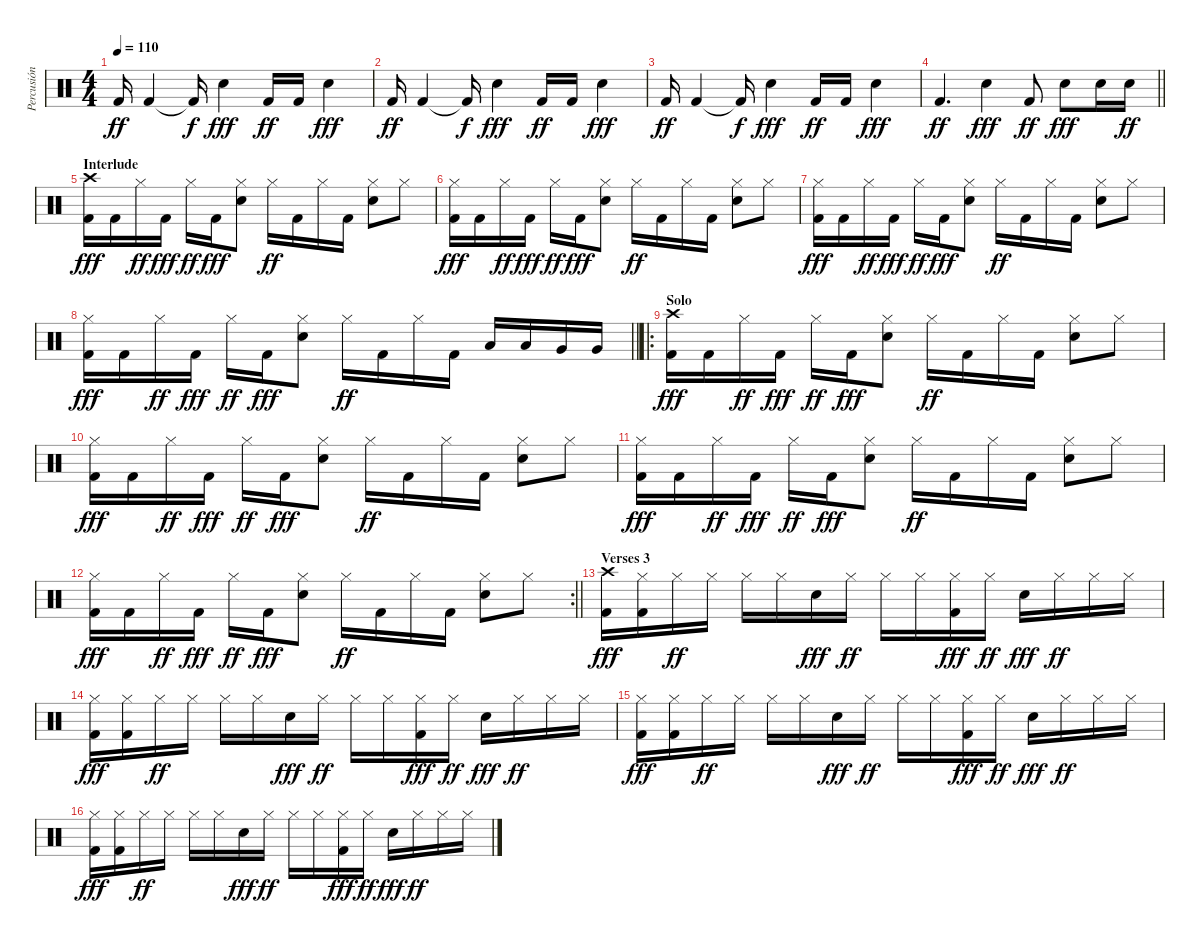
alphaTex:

\track ("Percusión" "Percusión") {instrument percussion}
\staff {score}
\articulation defaults
\ts (4 4)
\tempo 110
\clef neutral
\ks c "Kick (hit) 2".16{dy ff} "Kick (hit) 2".4 "Kick (hit) 2"{t}.16{dy f} "Electric Snare (hit)".4{dy fff} "Kick (hit) 2".16{dy ff} "Kick (hit) 2".16 "Electric Snare (hit)".4{dy fff}
|
"Kick (hit) 2".16{dy ff} "Kick (hit) 2".4 "Kick (hit) 2"{t}.16{dy f} "Electric Snare (hit)".4{dy fff} "Kick (hit) 2".16{dy ff} "Kick (hit) 2".16 "Electric Snare (hit)".4{dy fff} |
"Kick (hit) 2".16{dy ff} "Kick (hit) 2".4 "Kick (hit) 2"{t}.16{dy f} "Electric Snare (hit)".4{dy fff} "Kick (hit) 2".16{dy ff} "Kick (hit) 2".16 "Electric Snare (hit)".4{dy fff} |
\barLineRight lightlight "Kick (hit) 2".4{d dy ff} "Electric Snare (hit)".4{dy fff} "Kick (hit) 2".8{dy ff} "Electric Snare (hit)".8{dy fff} "Electric Snare (hit)".16 "Electric Snare (hit)".16{dy ff}
|
\section ("" "Interlude")
("Crash high (hit)" "Kick (hit) 2").16{dy fff} "Kick (hit) 2".16 "Hi-Hat (closed)".16{dy ff} "Kick (hit) 2".16{dy fff} "Hi-Hat (closed)".16{dy ff} "Kick (hit) 2".16{dy fff} ("Hi-Hat (closed)" "Electric Snare (hit)").8 "Hi-Hat (closed)".16{dy ff} "Kick (hit) 2".16 "Hi-Hat (closed)".16 "Kick (hit) 2".16 ("Hi-Hat (closed)" "Electric Snare (hit)").8 "Hi-Hat (closed)".8 |
("Hi-Hat (closed)" "Kick (hit) 2").16{dy fff} "Kick (hit) 2".16 "Hi-Hat (closed)".16{dy ff} "Kick (hit) 2".16{dy fff} "Hi-Hat (closed)".16{dy ff} "Kick (hit) 2".16{dy fff} ("Hi-Hat (closed)" "Electric Snare (hit)").8 "Hi-Hat (closed)".16{dy ff} "Kick (hit) 2".16 "Hi-Hat (closed)".16 "Kick (hit) 2".16 ("Hi-Hat (closed)" "Electric Snare (hit)").8 "Hi-Hat (closed)".8 |
("Hi-Hat (closed)" "Kick (hit) 2").16{dy fff} "Kick (hit) 2".16 "Hi-Hat (closed)".16{dy ff} "Kick (hit) 2".16{dy fff} "Hi-Hat (closed)".16{dy ff} "Kick (hit) 2".16{dy fff} ("Hi-Hat (closed)" "Electric Snare (hit)").8 "Hi-Hat (closed)".16{dy ff} "Kick (hit) 2".16 "Hi-Hat (closed)".16 "Kick (hit) 2".16 ("Hi-Hat (closed)" "Electric Snare (hit)").8 "Hi-Hat (closed)".8 |
\barLineRight lightlight
("Hi-Hat (closed)" "Kick (hit) 2").16{dy fff} "Kick (hit) 2".16 "Hi-Hat (closed)".16{dy ff} "Kick (hit) 2".16{dy fff} "Hi-Hat (closed)".16{dy ff} "Kick (hit) 2".16{dy fff} ("Hi-Hat (closed)" "Electric Snare (hit)").8 "Hi-Hat (closed)".16{dy ff} "Kick (hit) 2".16 "Hi-Hat (closed)".16 "Kick (hit) 2".16 "Low Tom (hit)".16 "Low Tom (hit)".16 "Very Low Tom (hit)".16 "Very Low Tom (hit)".16 |
\ro
\section ("" "Solo")
("Crash high (hit)" "Kick (hit) 2").16{dy fff} "Kick (hit) 2".16 "Hi-Hat (closed)".16{dy ff} "Kick (hit) 2".16{dy fff} "Hi-Hat (closed)".16{dy ff} "Kick (hit) 2".16{dy fff} ("Hi-Hat (closed)" "Electric Snare (hit)").8 "Hi-Hat (closed)".16{dy ff} "Kick (hit) 2".16 "Hi-Hat (closed)".16 "Kick (hit) 2".16 ("Hi-Hat (closed)" "Electric Snare (hit)").8 "Hi-Hat (closed)".8 |
("Hi-Hat (closed)" "Kick (hit) 2").16{dy fff} "Kick (hit) 2".16 "Hi-Hat (closed)".16{dy ff} "Kick (hit) 2".16{dy fff} "Hi-Hat (closed)".16{dy ff} "Kick (hit) 2".16{dy fff} ("Hi-Hat (closed)" "Electric Snare (hit)").8 "Hi-Hat (closed)".16{dy ff} "Kick (hit) 2".16 "Hi-Hat (closed)".16 "Kick (hit) 2".16 ("Hi-Hat (closed)" "Electric Snare (hit)").8 "Hi-Hat (closed)".8 |
("Hi-Hat (closed)" "Kick (hit) 2").16{dy fff} "Kick (hit) 2".16 "Hi-Hat (closed)".16{dy ff} "Kick (hit) 2".16{dy fff} "Hi-Hat (closed)".16{dy ff} "Kick (hit) 2".16{dy fff} ("Hi-Hat (closed)" "Electric Snare (hit)").8 "Hi-Hat (closed)".16{dy ff} "Kick (hit) 2".16 "Hi-Hat (closed)".16 "Kick (hit) 2".16 ("Hi-Hat (closed)" "Electric Snare (hit)").8 "Hi-Hat (closed)".8 |
\rc 2
\barLineRight lightlight
("Hi-Hat (closed)" "Kick (hit) 2").16{dy fff} "Kick (hit) 2".16 "Hi-Hat (closed)".16{dy ff} "Kick (hit) 2".16{dy fff} "Hi-Hat (closed)".16{dy ff} "Kick (hit) 2".16{dy fff} ("Hi-Hat (closed)" "Electric Snare (hit)").8 "Hi-Hat (closed)".16{dy ff} "Kick (hit) 2".16 "Hi-Hat (closed)".16 "Kick (hit) 2".16 ("Hi-Hat (closed)" "Electric Snare (hit)").8 "Hi-Hat (closed)".8 |
\section ("" "Verses 3")
("Crash high (hit)" "Kick (hit) 2").16{dy fff} ("Hi-Hat (closed)" "Kick (hit) 2").16 "Hi-Hat (closed)".16{dy ff} "Hi-Hat (closed)".16 "Hi-Hat (closed)".16 "Hi-Hat (closed)".16 "Electric Snare (hit)".16{dy fff} "Hi-Hat (closed)".16{dy ff} "Hi-Hat (closed)".16 "Hi-Hat (closed)".16 ("Hi-Hat (closed)" "Kick (hit) 2").16{dy fff} "Hi-Hat (closed)".16{dy ff} "Electric Snare (hit)".16{dy fff} "Hi-Hat (closed)".16{dy ff} "Hi-Hat (closed)".16 "Hi-Hat (closed)".16 |
("Hi-Hat (closed)" "Kick (hit) 2").16{dy fff} ("Hi-Hat (closed)" "Kick (hit) 2").16 "Hi-Hat (closed)".16{dy ff} "Hi-Hat (closed)".16 "Hi-Hat (closed)".16 "Hi-Hat (closed)".16 "Electric Snare (hit)".16{dy fff} "Hi-Hat (closed)".16{dy ff} "Hi-Hat (closed)".16 "Hi-Hat (closed)".16 ("Hi-Hat (closed)" "Kick (hit) 2").16{dy fff} "Hi-Hat (closed)".16{dy ff} "Electric Snare (hit)".16{dy fff} "Hi-Hat (closed)".16{dy ff} "Hi-Hat (closed)".16 "Hi-Hat (closed)".16 |
("Hi-Hat (closed)" "Kick (hit) 2").16{dy fff} ("Hi-Hat (closed)" "Kick (hit) 2").16 "Hi-Hat (closed)".16{dy ff} "Hi-Hat (closed)".16 "Hi-Hat (closed)".16 "Hi-Hat (closed)".16 "Electric Snare (hit)".16{dy fff} "Hi-Hat (closed)".16{dy ff} "Hi-Hat (closed)".16 "Hi-Hat (closed)".16 ("Hi-Hat (closed)" "Kick (hit) 2").16{dy fff} "Hi-Hat (closed)".16{dy ff} "Electric Snare (hit)".16{dy fff} "Hi-Hat (closed)".16{dy ff} "Hi-Hat (closed)".16 "Hi-Hat (closed)".16 |
("Hi-Hat (closed)" "Kick (hit) 2").16{dy fff} ("Hi-Hat (closed)" "Kick (hit) 2").16 "Hi-Hat (closed)".16{dy ff} "Hi-Hat (closed)".16 "Hi-Hat (closed)".16 "Hi-Hat (closed)".16 "Electric Snare (hit)".16{dy fff} "Hi-Hat (closed)".16{dy ff} "Hi-Hat (closed)".16 "Hi-Hat (closed)".16 ("Hi-Hat (closed)" "Kick (hit) 2").16{dy fff} "Hi-Hat (closed)".16{dy ff} "Electric Snare (hit)".16{dy fff} "Hi-Hat (closed)".16{dy ff} "Hi-Hat (closed)".16 "Hi-Hat (closed)".16
